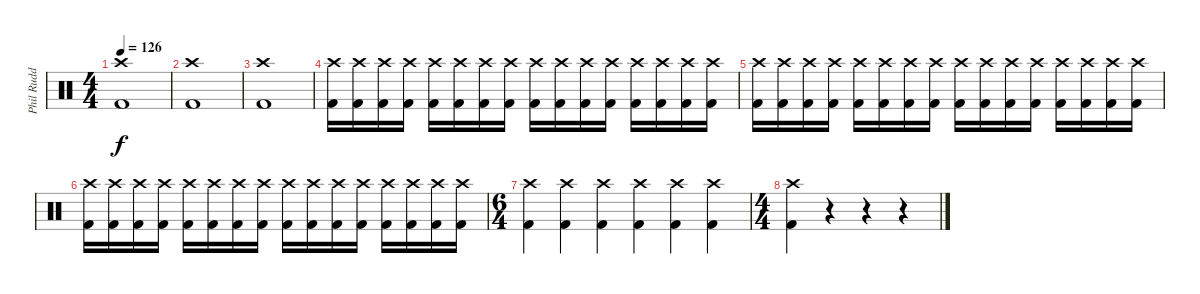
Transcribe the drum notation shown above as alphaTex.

\track ("Phil Rudd" "Phil Rudd") {instrument percussion}
\staff {score}
\articulation defaults
\ts (4 4)
\tempo 126
\clef neutral
\ks c
("Crash high (hit)" "Kick (hit) 2").1{dy f} |
("Crash high (hit)" "Kick (hit) 2").1 |
("Crash high (hit)" "Kick (hit) 2").1 |
("Crash high (hit)" "Kick (hit) 2").16 ("Crash high (hit)" "Kick (hit) 2").16 ("Crash high (hit)" "Kick (hit) 2").16 ("Crash high (hit)" "Kick (hit) 2").16 ("Crash high (hit)" "Kick (hit) 2").16 ("Crash high (hit)" "Kick (hit) 2").16 ("Crash high (hit)" "Kick (hit) 2").16 ("Crash high (hit)" "Kick (hit) 2").16 ("Crash high (hit)" "Kick (hit) 2").16 ("Crash high (hit)" "Kick (hit) 2").16 ("Crash high (hit)" "Kick (hit) 2").16 ("Crash high (hit)" "Kick (hit) 2").16 ("Crash high (hit)" "Kick (hit) 2").16 ("Crash high (hit)" "Kick (hit) 2").16 ("Crash high (hit)" "Kick (hit) 2").16 ("Crash high (hit)" "Kick (hit) 2").16 |
("Crash high (hit)" "Kick (hit) 2").16 ("Crash high (hit)" "Kick (hit) 2").16 ("Crash high (hit)" "Kick (hit) 2").16 ("Crash high (hit)" "Kick (hit) 2").16 ("Crash high (hit)" "Kick (hit) 2").16 ("Crash high (hit)" "Kick (hit) 2").16 ("Crash high (hit)" "Kick (hit) 2").16 ("Crash high (hit)" "Kick (hit) 2").16 ("Crash high (hit)" "Kick (hit) 2").16 ("Crash high (hit)" "Kick (hit) 2").16 ("Crash high (hit)" "Kick (hit) 2").16 ("Crash high (hit)" "Kick (hit) 2").16 ("Crash high (hit)" "Kick (hit) 2").16 ("Crash high (hit)" "Kick (hit) 2").16 ("Crash high (hit)" "Kick (hit) 2").16 ("Crash high (hit)" "Kick (hit) 2").16 |
("Crash high (hit)" "Kick (hit) 2").16 ("Crash high (hit)" "Kick (hit) 2").16 ("Crash high (hit)" "Kick (hit) 2").16 ("Crash high (hit)" "Kick (hit) 2").16 ("Crash high (hit)" "Kick (hit) 2").16 ("Crash high (hit)" "Kick (hit) 2").16 ("Crash high (hit)" "Kick (hit) 2").16 ("Crash high (hit)" "Kick (hit) 2").16 ("Crash high (hit)" "Kick (hit) 2").16 ("Crash high (hit)" "Kick (hit) 2").16 ("Crash high (hit)" "Kick (hit) 2").16 ("Crash high (hit)" "Kick (hit) 2").16 ("Crash high (hit)" "Kick (hit) 2").16 ("Crash high (hit)" "Kick (hit) 2").16 ("Crash high (hit)" "Kick (hit) 2").16 ("Crash high (hit)" "Kick (hit) 2").16 |
\ts (6 4)
("Crash high (hit)" "Kick (hit) 2").4 ("Crash high (hit)" "Kick (hit) 2").4 ("Crash high (hit)" "Kick (hit) 2").4 ("Crash high (hit)" "Kick (hit) 2").4 ("Crash high (hit)" "Kick (hit) 2").4 ("Crash high (hit)" "Kick (hit) 2").4 |
\ts (4 4)
("Crash high (hit)" "Kick (hit) 2").4 r.4 r.4 r.4
